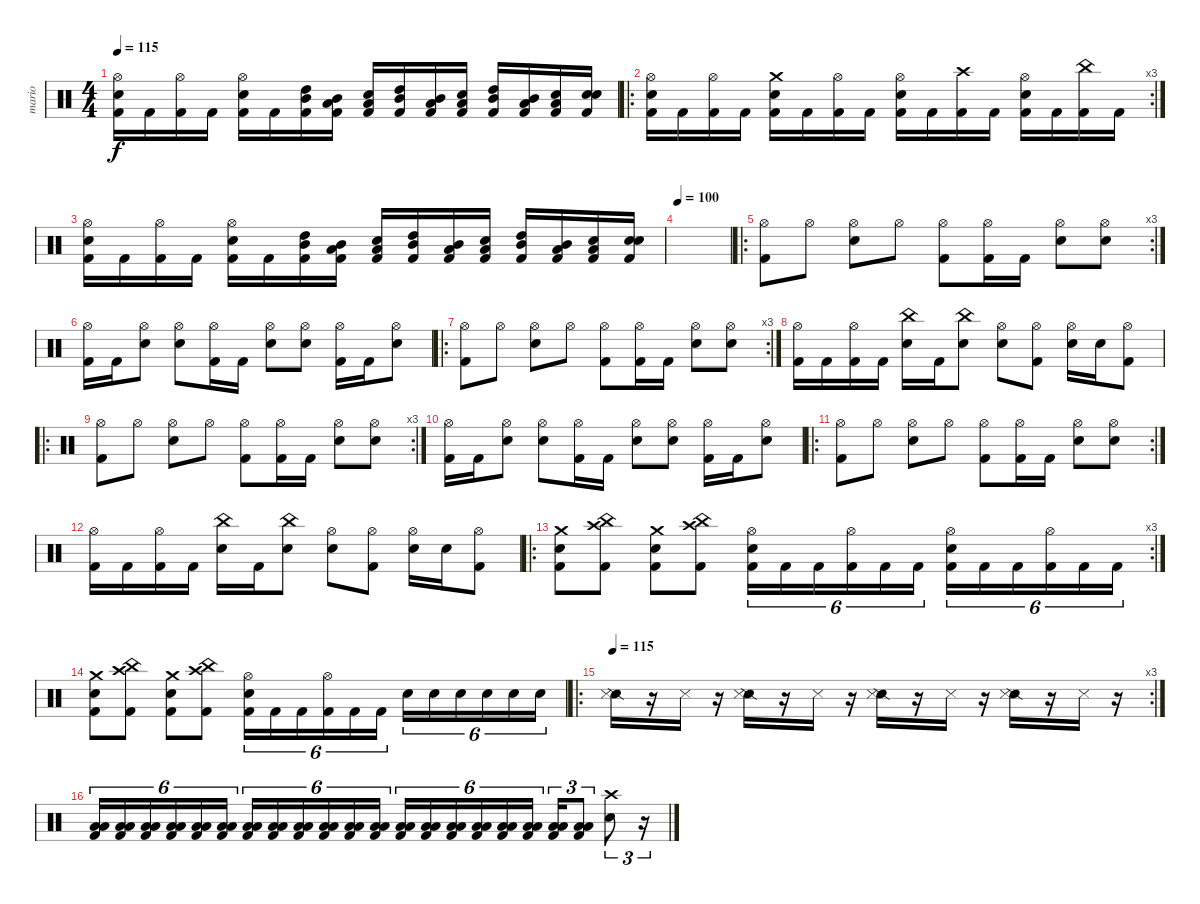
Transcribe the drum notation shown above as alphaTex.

\track ("mario" "mario") {instrument percussion}
\staff {score}
\articulation defaults
\ts (4 4)
\tempo 115
\clef neutral
\ks c
("Hi-Hat (open)" "Electric Snare (hit)" "Kick (hit) 2").16{dy f} "Kick (hit) 2".16 ("Hi-Hat (open)" "Kick (hit) 2").16 "Kick (hit) 2".16 ("Hi-Hat (open)" "Electric Snare (hit)" "Kick (hit) 2").16 "Kick (hit) 2".16 ("Mid Tom (hit)" "High Tom (hit)" "Kick (hit) 2").16 ("Low Tom (hit)" "Mid Tom (hit)" "Kick (hit) 2").16 ("Snare (hit) 2" "Low Tom (hit)" "Kick (hit) 2").16 ("Mid Tom (hit)" "High Tom (hit)" "Kick (hit) 2").16 ("Low Tom (hit)" "Mid Tom (hit)" "Kick (hit) 2").16 ("Snare (hit) 2" "Low Tom (hit)" "Kick (hit) 2").16 ("Mid Tom (hit)" "High Tom (hit)" "Kick (hit) 2").16 ("Low Tom (hit)" "Mid Tom (hit)" "Kick (hit) 2").16 ("Snare (hit) 2" "Low Tom (hit)" "Kick (hit) 2").16 ("Electric Snare (hit)" "Snare (hit) 2" "Kick (hit) 2").16 |
\ro
\rc 3
("Hi-Hat (open)" "Electric Snare (hit)" "Kick (hit) 2").16 "Kick (hit) 2".16 ("Hi-Hat (open)" "Kick (hit) 2").16 "Kick (hit) 2".16 ("Crash medium (hit)" "Electric Snare (hit)" "Kick (hit) 2").16 "Kick (hit) 2".16 ("Hi-Hat (open)" "Kick (hit) 2").16 "Kick (hit) 2".16 ("Hi-Hat (open)" "Electric Snare (hit)" "Kick (hit) 2").16 "Kick (hit) 2".16 ("Crash high (hit)" "Kick (hit) 2").16 "Kick (hit) 2".16 ("Hi-Hat (open)" "Electric Snare (hit)" "Kick (hit) 2").16 "Kick (hit) 2".16 ("China (hit)" "Kick (hit) 2").16 "Kick (hit) 2".16 |
("Hi-Hat (open)" "Electric Snare (hit)" "Kick (hit) 2").16 "Kick (hit) 2".16 ("Hi-Hat (open)" "Kick (hit) 2").16 "Kick (hit) 2".16 ("Hi-Hat (open)" "Electric Snare (hit)" "Kick (hit) 2").16 "Kick (hit) 2".16 ("Mid Tom (hit)" "High Tom (hit)" "Kick (hit) 2").16 ("Low Tom (hit)" "Mid Tom (hit)" "Kick (hit) 2").16 ("Snare (hit) 2" "Low Tom (hit)" "Kick (hit) 2").16 ("Mid Tom (hit)" "High Tom (hit)" "Kick (hit) 2").16 ("Low Tom (hit)" "Mid Tom (hit)" "Kick (hit) 2").16 ("Snare (hit) 2" "Low Tom (hit)" "Kick (hit) 2").16 ("Mid Tom (hit)" "High Tom (hit)" "Kick (hit) 2").16 ("Low Tom (hit)" "Mid Tom (hit)" "Kick (hit) 2").16 ("Snare (hit) 2" "Low Tom (hit)" "Kick (hit) 2").16 ("Electric Snare (hit)" "Snare (hit) 2" "Kick (hit) 2").16 |
\tempo 100
|
\ro
\rc 3
("Hi-Hat (open)" "Kick (hit) 2").8 "Hi-Hat (open)".8 ("Hi-Hat (open)" "Electric Snare (hit)").8 "Hi-Hat (open)".8 ("Hi-Hat (open)" "Kick (hit) 2").8 ("Hi-Hat (open)" "Kick (hit) 2").16 "Kick (hit) 2".16 ("Hi-Hat (open)" "Electric Snare (hit)").8 ("Hi-Hat (open)" "Electric Snare (hit)").8 |
("Hi-Hat (open)" "Kick (hit) 2").16 "Kick (hit) 2".16 ("Hi-Hat (open)" "Electric Snare (hit)").8 ("Hi-Hat (open)" "Electric Snare (hit)").8 ("Hi-Hat (open)" "Kick (hit) 2").16 "Kick (hit) 2".16 ("Hi-Hat (open)" "Electric Snare (hit)").8 ("Hi-Hat (open)" "Electric Snare (hit)").8 ("Hi-Hat (open)" "Kick (hit) 2").16 "Kick (hit) 2".16 ("Hi-Hat (open)" "Electric Snare (hit)").8 |
\ro
\rc 3
("Hi-Hat (open)" "Kick (hit) 2").8 "Hi-Hat (open)".8 ("Hi-Hat (open)" "Electric Snare (hit)").8 "Hi-Hat (open)".8 ("Hi-Hat (open)" "Kick (hit) 2").8 ("Hi-Hat (open)" "Kick (hit) 2").16 "Kick (hit) 2".16 ("Hi-Hat (open)" "Electric Snare (hit)").8 ("Hi-Hat (open)" "Electric Snare (hit)").8 |
("Hi-Hat (open)" "Kick (hit) 2").16 "Kick (hit) 2".16 ("Hi-Hat (open)" "Kick (hit) 2").16 "Kick (hit) 2".16 ("China (hit)" "Electric Snare (hit)").16 "Kick (hit) 2".16 ("China (hit)" "Electric Snare (hit)").8 ("Hi-Hat (open)" "Electric Snare (hit)").8 ("Hi-Hat (open)" "Kick (hit) 2").8 ("Hi-Hat (open)" "Electric Snare (hit)").16 "Electric Snare (hit)".16 ("Hi-Hat (open)" "Kick (hit) 2").8 |
\ro
\rc 3
("Hi-Hat (open)" "Kick (hit) 2").8 "Hi-Hat (open)".8 ("Hi-Hat (open)" "Electric Snare (hit)").8 "Hi-Hat (open)".8 ("Hi-Hat (open)" "Kick (hit) 2").8 ("Hi-Hat (open)" "Kick (hit) 2").16 "Kick (hit) 2".16 ("Hi-Hat (open)" "Electric Snare (hit)").8 ("Hi-Hat (open)" "Electric Snare (hit)").8 |
("Hi-Hat (open)" "Kick (hit) 2").16 "Kick (hit) 2".16 ("Hi-Hat (open)" "Electric Snare (hit)").8 ("Hi-Hat (open)" "Electric Snare (hit)").8 ("Hi-Hat (open)" "Kick (hit) 2").16 "Kick (hit) 2".16 ("Hi-Hat (open)" "Electric Snare (hit)").8 ("Hi-Hat (open)" "Electric Snare (hit)").8 ("Hi-Hat (open)" "Kick (hit) 2").16 "Kick (hit) 2".16 ("Hi-Hat (open)" "Electric Snare (hit)").8 |
\ro
\rc 2
("Hi-Hat (open)" "Kick (hit) 2").8 "Hi-Hat (open)".8 ("Hi-Hat (open)" "Electric Snare (hit)").8 "Hi-Hat (open)".8 ("Hi-Hat (open)" "Kick (hit) 2").8 ("Hi-Hat (open)" "Kick (hit) 2").16 "Kick (hit) 2".16 ("Hi-Hat (open)" "Electric Snare (hit)").8 ("Hi-Hat (open)" "Electric Snare (hit)").8 |
("Hi-Hat (open)" "Kick (hit) 2").16 "Kick (hit) 2".16 ("Hi-Hat (open)" "Kick (hit) 2").16 "Kick (hit) 2".16 ("China (hit)" "Electric Snare (hit)").16 "Kick (hit) 2".16 ("China (hit)" "Electric Snare (hit)").8 ("Hi-Hat (open)" "Electric Snare (hit)").8 ("Hi-Hat (open)" "Kick (hit) 2").8 ("Hi-Hat (open)" "Electric Snare (hit)").16 "Electric Snare (hit)".16 ("Hi-Hat (open)" "Kick (hit) 2").8 |
\ro
\rc 3
("Crash medium (hit)" "Electric Snare (hit)" "Kick (hit) 2").8 ("Crash high (hit)" "China (hit)" "Kick (hit) 2").8 ("Crash medium (hit)" "Electric Snare (hit)" "Kick (hit) 2").8 ("Crash high (hit)" "China (hit)" "Kick (hit) 2").8 ("Hi-Hat (open)" "Electric Snare (hit)" "Kick (hit) 2").16{tu (6 4)} "Kick (hit) 2".16{tu (6 4)} "Kick (hit) 2".16{tu (6 4)} ("Hi-Hat (open)" "Kick (hit) 2").16{tu (6 4)} "Kick (hit) 2".16{tu (6 4)} "Kick (hit) 2".16{tu (6 4)} ("Hi-Hat (open)" "Electric Snare (hit)" "Kick (hit) 2").16{tu (6 4)} "Kick (hit) 2".16{tu (6 4)} "Kick (hit) 2".16{tu (6 4)} ("Hi-Hat (open)" "Kick (hit) 2").16{tu (6 4)} "Kick (hit) 2".16{tu (6 4)} "Kick (hit) 2".16{tu (6 4)} |
("Crash medium (hit)" "Electric Snare (hit)" "Kick (hit) 2").8 ("Crash high (hit)" "China (hit)" "Kick (hit) 2").8 ("Crash medium (hit)" "Electric Snare (hit)" "Kick (hit) 2").8 ("Crash high (hit)" "China (hit)" "Kick (hit) 2").8 ("Hi-Hat (open)" "Electric Snare (hit)" "Kick (hit) 2").16{tu (6 4)} "Kick (hit) 2".16{tu (6 4)} "Kick (hit) 2".16{tu (6 4)} ("Hi-Hat (open)" "Kick (hit) 2").16{tu (6 4)} "Kick (hit) 2".16{tu (6 4)} "Kick (hit) 2".16{tu (6 4)} "Electric Snare (hit)".16{tu (6 4)} "Electric Snare (hit)".16{tu (6 4)} "Electric Snare (hit)".16{tu (6 4)} "Electric Snare (hit)".16{tu (6 4)} "Electric Snare (hit)".16{tu (6 4)} "Electric Snare (hit)".16{tu (6 4)} |
\ro
\rc 3
\tempo 115
("Snare (side stick) 2" "Metronome (hit)").16{volume 8} r.16 "Metronome (hit)".16 r.16 ("Snare (side stick) 2" "Metronome (hit)").16 r.16 "Metronome (hit)".16 r.16 ("Snare (side stick) 2" "Metronome (hit)").16 r.16 "Metronome (hit)".16 r.16 ("Snare (side stick) 2" "Metronome (hit)").16 r.16 "Metronome (hit)".16 r.16 |
("Low Tom (hit)" "Low Tom (hit)" "Kick (hit) 2").16{tu (6 4) volume 12} ("Low Tom (hit)" "Low Tom (hit)" "Kick (hit) 2").16{tu (6 4)} ("Low Tom (hit)" "Low Tom (hit)" "Kick (hit) 2").16{tu (6 4)} ("Low Tom (hit)" "Low Tom (hit)" "Kick (hit) 2").16{tu (6 4)} ("Low Tom (hit)" "Low Tom (hit)" "Kick (hit) 2").16{tu (6 4)} ("Low Tom (hit)" "Low Tom (hit)" "Kick (hit) 2").16{tu (6 4)} ("Low Tom (hit)" "Low Tom (hit)" "Kick (hit) 2").16{tu (6 4)} ("Low Tom (hit)" "Low Tom (hit)" "Kick (hit) 2").16{tu (6 4)} ("Low Tom (hit)" "Low Tom (hit)" "Kick (hit) 2").16{tu (6 4)} ("Low Tom (hit)" "Low Tom (hit)" "Kick (hit) 2").16{tu (6 4)} ("Low Tom (hit)" "Low Tom (hit)" "Kick (hit) 2").16{tu (6 4)} ("Low Tom (hit)" "Low Tom (hit)" "Kick (hit) 2").16{tu (6 4)} ("Low Tom (hit)" "Low Tom (hit)" "Kick (hit) 2").16{tu (6 4)} ("Low Tom (hit)" "Low Tom (hit)" "Kick (hit) 2").16{tu (6 4)} ("Low Tom (hit)" "Low Tom (hit)" "Kick (hit) 2").16{tu (6 4)} ("Low Tom (hit)" "Low Tom (hit)" "Kick (hit) 2").16{tu (6 4)} ("Low Tom (hit)" "Low Tom (hit)" "Kick (hit) 2").16{tu (6 4)} ("Low Tom (hit)" "Low Tom (hit)" "Kick (hit) 2").16{tu (6 4)} ("Low Tom (hit)" "Low Tom (hit)" "Kick (hit) 2").16{tu (3 2)} ("Low Tom (hit)" "Low Tom (hit)" "Kick (hit) 2").8{tu (3 2)} ("Crash high (hit)" "Electric Snare (hit)").8{tu (3 2)} r.16{tu (3 2)}
